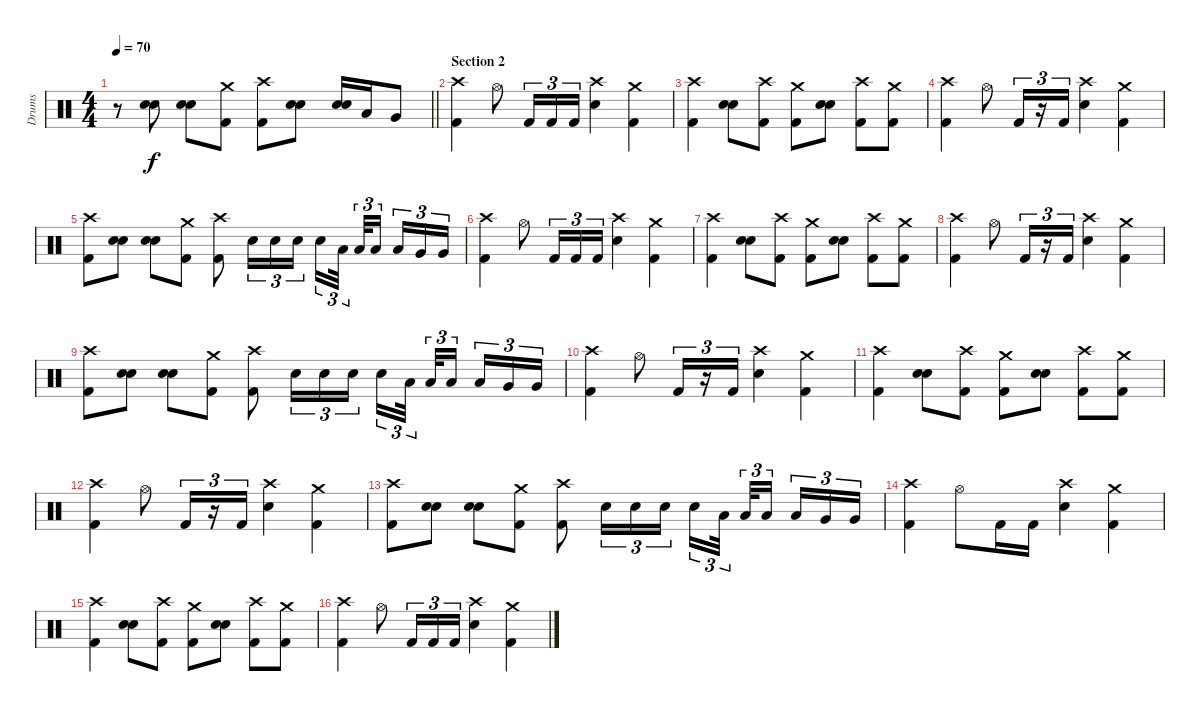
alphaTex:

\track ("Drums" "Drums") {instrument percussion}
\staff {score}
\articulation defaults
\ts (4 4)
\tempo 70
\clef neutral
\barLineRight lightlight
\ks c
r.8{dy f} ("Electric Snare (hit)" "Electric Snare (hit)").8{bu 60} ("Electric Snare (hit)" "Electric Snare (hit)").8{bu 60} ("Crash medium (hit)" "Kick (hit) 2").8 ("Crash high (hit)" "Kick (hit) 2").8 ("Electric Snare (hit)" "Electric Snare (hit)").8{bu 60} ("Electric Snare (hit)" "Electric Snare (hit)").16{bu 60} "Low Tom (hit)".16 "Very Low Tom (hit)".8 |
\section ("" "Section 2")
("Crash high (hit)" "Kick (hit) 2").4 "Hi-Hat (open)".8 "Kick (hit) 2".16{tu (3 2)} "Kick (hit) 2".16{tu (3 2)} "Kick (hit) 2".16{tu (3 2)} ("Crash high (hit)" "Electric Snare (hit)").4 ("Crash medium (hit)" "Kick (hit) 2").4 |
("Crash high (hit)" "Kick (hit) 2").4 ("Electric Snare (hit)" "Electric Snare (hit)").8{bu 60} ("Crash high (hit)" "Kick (hit) 2").8 ("Crash medium (hit)" "Kick (hit) 2").8 ("Electric Snare (hit)" "Electric Snare (hit)").8{bu 60} ("Crash high (hit)" "Kick (hit) 2").8 ("Crash medium (hit)" "Kick (hit) 2").8 |
("Crash high (hit)" "Kick (hit) 2").4 "Hi-Hat (open)".8 "Kick (hit) 2".16{tu (3 2)} r.16{tu (3 2)} "Kick (hit) 2".16{tu (3 2)} ("Crash high (hit)" "Electric Snare (hit)").4 ("Crash medium (hit)" "Kick (hit) 2").4 |
("Crash high (hit)" "Kick (hit) 2").8 ("Electric Snare (hit)" "Electric Snare (hit)").8{bu 60} ("Electric Snare (hit)" "Electric Snare (hit)").8{bu 60} ("Crash medium (hit)" "Kick (hit) 2").8 ("Crash high (hit)" "Kick (hit) 2").8 "Electric Snare (hit)".16{tu (3 2)} "Electric Snare (hit)".16{tu (3 2)} "Electric Snare (hit)".16{tu (3 2)} "Electric Snare (hit)".16{tu (3 2)} "Low Tom (hit)".32{tu (3 2)} "Low Tom (hit)".32{tu (3 2)} "Low Tom (hit)".16{tu (3 2)} "Low Tom (hit)".16{tu (3 2)} "Very Low Tom (hit)".16{tu (3 2)} "Very Low Tom (hit)".16{tu (3 2)} |
("Crash high (hit)" "Kick (hit) 2").4 "Hi-Hat (open)".8 "Kick (hit) 2".16{tu (3 2)} "Kick (hit) 2".16{tu (3 2)} "Kick (hit) 2".16{tu (3 2)} ("Crash high (hit)" "Electric Snare (hit)").4 ("Crash medium (hit)" "Kick (hit) 2").4 |
("Crash high (hit)" "Kick (hit) 2").4 ("Electric Snare (hit)" "Electric Snare (hit)").8{bu 60} ("Crash high (hit)" "Kick (hit) 2").8 ("Crash medium (hit)" "Kick (hit) 2").8 ("Electric Snare (hit)" "Electric Snare (hit)").8{bu 60} ("Crash high (hit)" "Kick (hit) 2").8 ("Crash medium (hit)" "Kick (hit) 2").8 |
("Crash high (hit)" "Kick (hit) 2").4 "Hi-Hat (open)".8 "Kick (hit) 2".16{tu (3 2)} r.16{tu (3 2)} "Kick (hit) 2".16{tu (3 2)} ("Crash high (hit)" "Electric Snare (hit)").4 ("Crash medium (hit)" "Kick (hit) 2").4 |
("Crash high (hit)" "Kick (hit) 2").8 ("Electric Snare (hit)" "Electric Snare (hit)").8{bu 60} ("Electric Snare (hit)" "Electric Snare (hit)").8{bu 60} ("Crash medium (hit)" "Kick (hit) 2").8 ("Crash high (hit)" "Kick (hit) 2").8 "Electric Snare (hit)".16{tu (3 2)} "Electric Snare (hit)".16{tu (3 2)} "Electric Snare (hit)".16{tu (3 2)} "Electric Snare (hit)".16{tu (3 2)} "Low Tom (hit)".32{tu (3 2)} "Low Tom (hit)".32{tu (3 2)} "Low Tom (hit)".16{tu (3 2)} "Low Tom (hit)".16{tu (3 2)} "Very Low Tom (hit)".16{tu (3 2)} "Very Low Tom (hit)".16{tu (3 2)} |
("Crash high (hit)" "Kick (hit) 2").4 "Hi-Hat (open)".8 "Kick (hit) 2".16{tu (3 2)} r.16{tu (3 2)} "Kick (hit) 2".16{tu (3 2)} ("Crash high (hit)" "Electric Snare (hit)").4 ("Crash medium (hit)" "Kick (hit) 2").4 |
("Crash high (hit)" "Kick (hit) 2").4 ("Electric Snare (hit)" "Electric Snare (hit)").8{bu 60} ("Crash high (hit)" "Kick (hit) 2").8 ("Crash medium (hit)" "Kick (hit) 2").8 ("Electric Snare (hit)" "Electric Snare (hit)").8{bu 60} ("Crash high (hit)" "Kick (hit) 2").8 ("Crash medium (hit)" "Kick (hit) 2").8 |
("Crash high (hit)" "Kick (hit) 2").4 "Hi-Hat (open)".8 "Kick (hit) 2".16{tu (3 2)} r.16{tu (3 2)} "Kick (hit) 2".16{tu (3 2)} ("Crash high (hit)" "Electric Snare (hit)").4 ("Crash medium (hit)" "Kick (hit) 2").4 |
("Crash high (hit)" "Kick (hit) 2").8 ("Electric Snare (hit)" "Electric Snare (hit)").8{bu 60} ("Electric Snare (hit)" "Electric Snare (hit)").8{bu 60} ("Crash medium (hit)" "Kick (hit) 2").8 ("Crash high (hit)" "Kick (hit) 2").8 "Electric Snare (hit)".16{tu (3 2)} "Electric Snare (hit)".16{tu (3 2)} "Electric Snare (hit)".16{tu (3 2)} "Electric Snare (hit)".16{tu (3 2)} "Low Tom (hit)".32{tu (3 2)} "Low Tom (hit)".32{tu (3 2)} "Low Tom (hit)".16{tu (3 2)} "Low Tom (hit)".16{tu (3 2)} "Very Low Tom (hit)".16{tu (3 2)} "Very Low Tom (hit)".16{tu (3 2)} |
("Crash high (hit)" "Kick (hit) 2").4 "Hi-Hat (open)".8 "Kick (hit) 2".16 "Kick (hit) 2".16 ("Crash high (hit)" "Electric Snare (hit)").4 ("Crash medium (hit)" "Kick (hit) 2").4 |
("Crash high (hit)" "Kick (hit) 2").4 ("Electric Snare (hit)" "Electric Snare (hit)").8{bu 60} ("Crash high (hit)" "Kick (hit) 2").8 ("Crash medium (hit)" "Kick (hit) 2").8 ("Electric Snare (hit)" "Electric Snare (hit)").8{bu 60} ("Crash high (hit)" "Kick (hit) 2").8 ("Crash medium (hit)" "Kick (hit) 2").8 |
("Crash high (hit)" "Kick (hit) 2").4 "Hi-Hat (open)".8 "Kick (hit) 2".16{tu (3 2)} "Kick (hit) 2".16{tu (3 2)} "Kick (hit) 2".16{tu (3 2)} ("Crash high (hit)" "Electric Snare (hit)").4 ("Crash medium (hit)" "Kick (hit) 2").4
